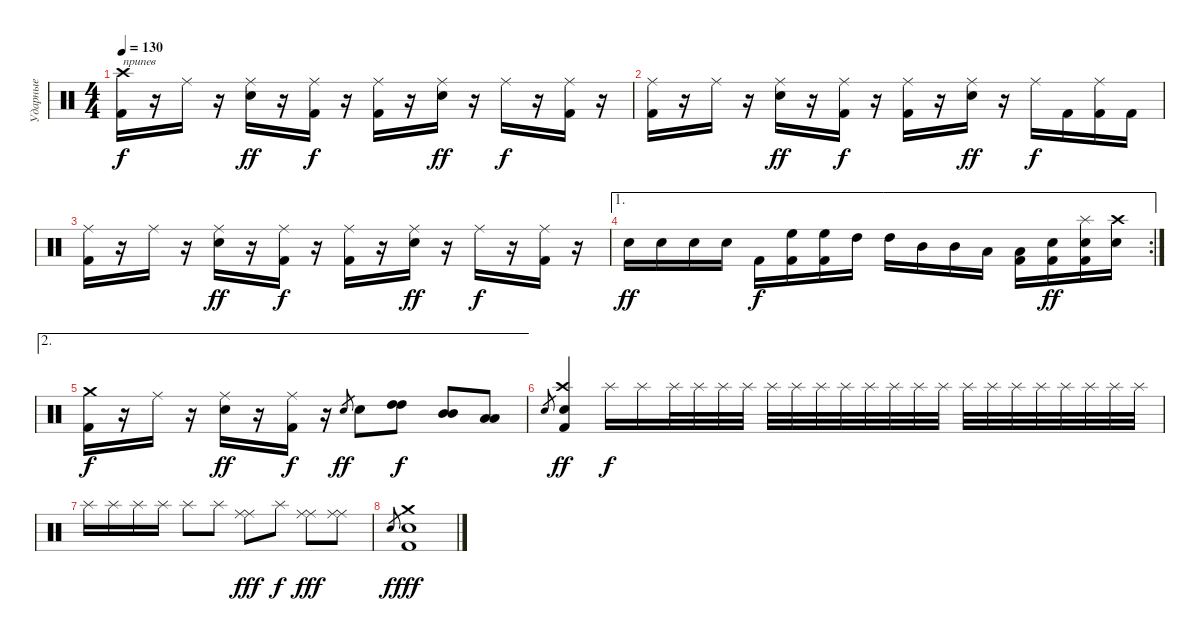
\track ("Ударные" "Ударные") {instrument percussion}
\staff {score}
\articulation defaults
\ts (4 4)
\tempo 130
\clef neutral
\ks c
("Kick (hit) 2" "Crash high (hit)").16{txt "припев" dy f} r.16 "Ride (middle)".16 r.16 ("Electric Snare (hit)" "Ride (middle)").16{dy ff} r.16 ("Kick (hit) 2" "Ride (middle)").16{dy f} r.16 ("Kick (hit) 2" "Ride (middle)").16 r.16 ("Electric Snare (hit)" "Ride (middle)").16{dy ff} r.16 "Ride (middle)".16{dy f} r.16 ("Kick (hit) 2" "Ride (middle)").16 r.16 |
("Kick (hit) 2" "Ride (middle)").16 r.16 "Ride (middle)".16 r.16 ("Electric Snare (hit)" "Ride (middle)").16{dy ff} r.16 ("Kick (hit) 2" "Ride (middle)").16{dy f} r.16 ("Kick (hit) 2" "Ride (middle)").16 r.16 ("Electric Snare (hit)" "Ride (middle)").16{dy ff} r.16 "Ride (middle)".16{dy f} "Kick (hit) 2".16 ("Kick (hit) 2" "Ride (middle)").16 "Kick (hit) 2".16 |
("Kick (hit) 2" "Ride (middle)").16 r.16 "Ride (middle)".16 r.16 ("Electric Snare (hit)" "Ride (middle)").16{dy ff} r.16 ("Kick (hit) 2" "Ride (middle)").16{dy f} r.16 ("Kick (hit) 2" "Ride (middle)").16 r.16 ("Electric Snare (hit)" "Ride (middle)").16{dy ff} r.16 "Ride (middle)".16{dy f} r.16 ("Kick (hit) 2" "Ride (middle)").16 r.16 |
\ae 1
\rc 2 "Electric Snare (hit)".16{dy ff} "Electric Snare (hit)".16 "Electric Snare (hit)".16 "Electric Snare (hit)".16 "Kick (hit) 2".16{dy f}
("High Floor Tom (hit)" "Kick (hit) 2").16 ("High Floor Tom (hit)" "Kick (hit) 2").16 "High Tom (hit)".16 "High Tom (hit)".16 "Mid Tom (hit)".16 "Mid Tom (hit)".16 "Low Tom (hit)".16 ("Low Tom (hit)" "Kick (hit) 2").16 ("Electric Snare (hit)" "Kick (hit) 2").16{dy ff} ("Electric Snare (hit)" "Kick (hit) 2" "Splash (hit)").16 ("Electric Snare (hit)" "Crash high (hit)").16 |
\ae 2
("Kick (hit) 2" "Crash medium (hit)").16{dy f} r.16 "Ride (middle)".16 r.16 ("Electric Snare (hit)" "Ride (middle)").16{dy ff} r.16 ("Kick (hit) 2" "Ride (middle)").16{dy f} r.16 "Electric Snare (hit)".8{gr dy ff} "Electric Snare (hit)".8 ("High Tom (hit)" "High Tom (hit)").8{dy f} ("Mid Tom (hit)" "Mid Tom (hit)").8 ("Low Tom (hit)" "Low Tom (hit)").8 |
"Electric Snare (hit)".8{gr} ("Kick (hit) 2" "Electric Snare (hit)" "Crash high (hit)").4{dy ff} "Splash (hit)".16{dy f} "Splash (hit)".16 "Splash (hit)".32 "Splash (hit)".32 "Splash (hit)".32 "Splash (hit)".32 "Splash (hit)".32 "Splash (hit)".32 "Splash (hit)".32 "Splash (hit)".32 "Splash (hit)".32 "Splash (hit)".32 "Splash (hit)".32 "Splash (hit)".32 "Splash (hit)".32 "Splash (hit)".32 "Splash (hit)".32 "Splash (hit)".32 "Splash (hit)".32 "Splash (hit)".32 "Splash (hit)".32 "Splash (hit)".32 |
"Splash (hit)".16 "Splash (hit)".16 "Splash (hit)".16 "Splash (hit)".16 "Splash (hit)".8 "Splash (hit)".8 ("Ride (middle)" "Ride (middle)").8{dy fff} "Splash (hit)".8{dy f} ("Ride (middle)" "Ride (middle)").8{dy fff} ("Ride (middle)" "Ride (middle)").8 |
"Electric Snare (hit)".8{gr dy f} ("Kick (hit) 2" "Electric Snare (hit)" "Crash medium (hit)").1{dy fff}
